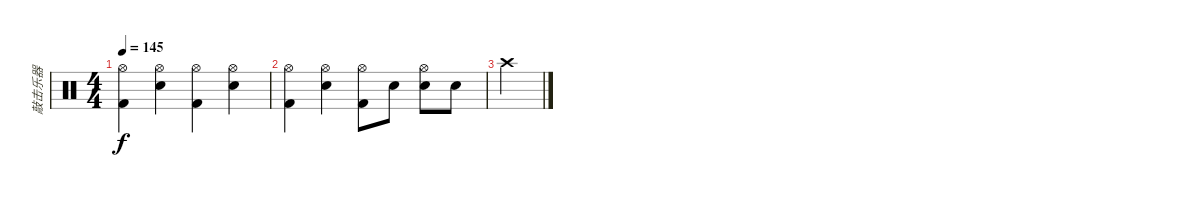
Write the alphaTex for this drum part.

\track ("敲击乐器" "敲击乐器") {instrument percussion}
\staff {score}
\articulation defaults
\ts (4 4)
\tempo 145
\clef neutral
\ks c
("Hi-Hat (open)" "Kick (hit) 2").4{dy f} ("Hi-Hat (open)" "Snare (hit) 2").4 ("Hi-Hat (open)" "Kick (hit) 2").4 ("Hi-Hat (open)" "Snare (hit) 2").4 |
("Hi-Hat (open)" "Kick (hit) 2").4 ("Hi-Hat (open)" "Snare (hit) 2").4 ("Hi-Hat (open)" "Kick (hit) 2").8 "Snare (hit) 2".8 ("Hi-Hat (open)" "Snare (hit) 2").8 "Snare (hit) 2".8 |
"Crash high (hit)".4
